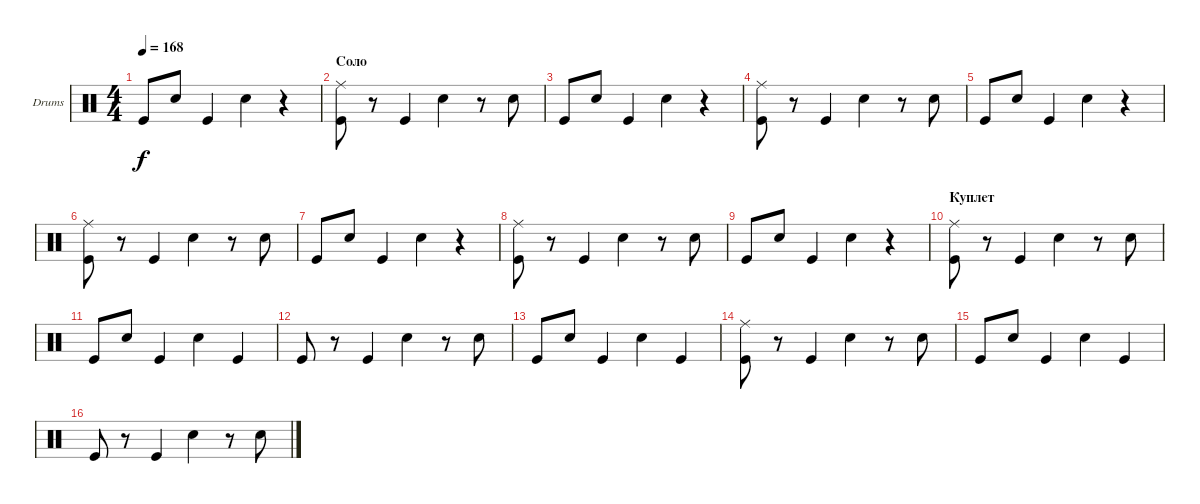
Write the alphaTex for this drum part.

\defaultSystemsLayout 4
\bracketExtendMode groupsimilarinstruments
\firstSystemTrackNameOrientation horizontal
\otherSystemsTrackNameOrientation horizontal
\track ("Е. Кулаков" "Drums") {instrument percussion}
\staff {score}
\articulation defaults
\ts (4 4)
\tempo 168
\clef neutral
\scale
0.333333
\ks c "Kick (hit)".8{dy f} "Snare (hit) 2".8 "Kick (hit)".4 "Snare (hit) 2".4
r.4 |
\section ("" "Соло")
\scale
0.333333 ("Kick (hit)" "Ride (middle)").8 r.8 "Kick (hit)".4 "Snare (hit) 2".4 r.8 "Snare (hit) 2".8 |
\scale
0.333333 "Kick (hit)".8 "Snare (hit) 2".8 "Kick (hit)".4 "Snare (hit) 2".4 r.4 |
\scale
0.333333 ("Kick (hit)" "Ride (middle)").8 r.8 "Kick (hit)".4 "Snare (hit) 2".4 r.8 "Snare (hit) 2".8 |
\scale
0.333333 "Kick (hit)".8 "Snare (hit) 2".8 "Kick (hit)".4 "Snare (hit) 2".4 r.4 |
\scale
0.333333 ("Kick (hit)" "Ride (middle)").8 r.8 "Kick (hit)".4 "Snare (hit) 2".4 r.8 "Snare (hit) 2".8 |
\scale
0.333333 "Kick (hit)".8 "Snare (hit) 2".8 "Kick (hit)".4 "Snare (hit) 2".4 r.4 |
\scale
0.333333 ("Kick (hit)" "Ride (middle)").8 r.8 "Kick (hit)".4 "Snare (hit) 2".4 r.8 "Snare (hit) 2".8 |
\scale
0.333333 "Kick (hit)".8 "Snare (hit) 2".8 "Kick (hit)".4 "Snare (hit) 2".4 r.4 |
\section ("" "Куплет")
\scale
0.333333 ("Kick (hit)" "Ride (middle)").8 r.8 "Kick (hit)".4 "Snare (hit) 2".4 r.8 "Snare (hit) 2".8 |
\scale
0.333333 "Kick (hit)".8 "Snare (hit) 2".8 "Kick (hit)".4 "Snare (hit) 2".4 "Kick (hit)".4 |
\scale
0.333333 "Kick (hit)".8 r.8 "Kick (hit)".4 "Snare (hit) 2".4 r.8 "Snare (hit) 2".8 |
\scale
0.333333 "Kick (hit)".8 "Snare (hit) 2".8 "Kick (hit)".4 "Snare (hit) 2".4 "Kick (hit)".4 |
\scale
0.333333 ("Kick (hit)" "Ride (middle)").8 r.8 "Kick (hit)".4 "Snare (hit) 2".4 r.8 "Snare (hit) 2".8 |
\scale
0.333333 "Kick (hit)".8 "Snare (hit) 2".8 "Kick (hit)".4 "Snare (hit) 2".4 "Kick (hit)".4 |
\scale
0.333333 "Kick (hit)".8 r.8 "Kick (hit)".4 "Snare (hit) 2".4 r.8 "Snare (hit) 2".8
